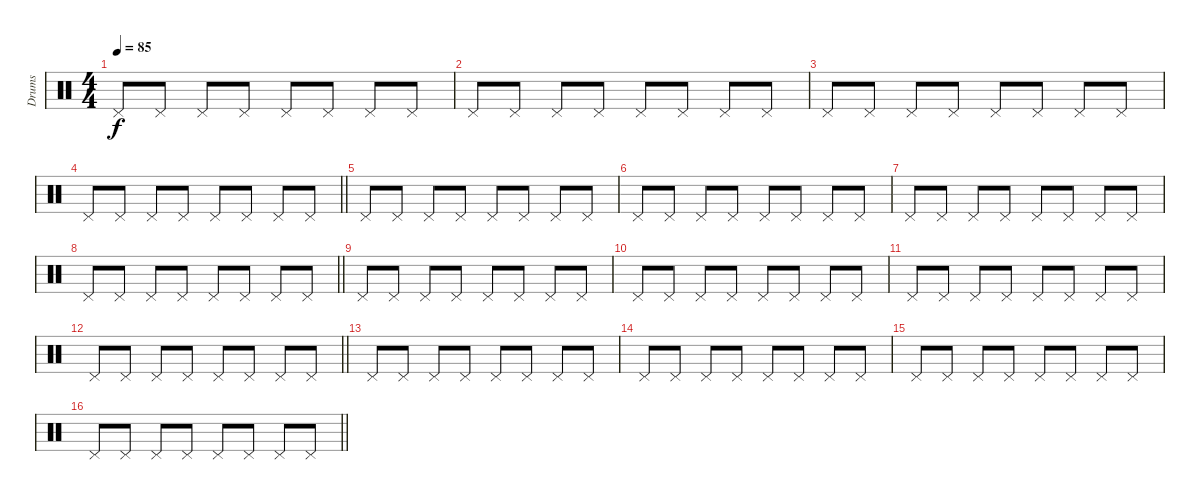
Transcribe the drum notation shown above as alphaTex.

\track ("Drums" "Drums") {solo instrument percussion}
\staff {score}
\articulation defaults
\ts (4 4)
\section ("" "")
\tempo 85
\clef neutral
\ks c "Pedal Hi-Hat (hit)".8{dy f} "Pedal Hi-Hat (hit)".8 "Pedal Hi-Hat (hit)".8 "Pedal Hi-Hat (hit)".8 "Pedal Hi-Hat (hit)".8 "Pedal Hi-Hat (hit)".8 "Pedal Hi-Hat (hit)".8 "Pedal Hi-Hat (hit)".8
|
"Pedal Hi-Hat (hit)".8 "Pedal Hi-Hat (hit)".8 "Pedal Hi-Hat (hit)".8 "Pedal Hi-Hat (hit)".8 "Pedal Hi-Hat (hit)".8 "Pedal Hi-Hat (hit)".8 "Pedal Hi-Hat (hit)".8 "Pedal Hi-Hat (hit)".8 |
"Pedal Hi-Hat (hit)".8 "Pedal Hi-Hat (hit)".8 "Pedal Hi-Hat (hit)".8 "Pedal Hi-Hat (hit)".8 "Pedal Hi-Hat (hit)".8 "Pedal Hi-Hat (hit)".8 "Pedal Hi-Hat (hit)".8 "Pedal Hi-Hat (hit)".8 |
\barLineRight lightlight "Pedal Hi-Hat (hit)".8 "Pedal Hi-Hat (hit)".8 "Pedal Hi-Hat (hit)".8 "Pedal Hi-Hat (hit)".8 "Pedal Hi-Hat (hit)".8 "Pedal Hi-Hat (hit)".8 "Pedal Hi-Hat (hit)".8 "Pedal Hi-Hat (hit)".8
|
\section ("" "")
"Pedal Hi-Hat (hit)".8 "Pedal Hi-Hat (hit)".8 "Pedal Hi-Hat (hit)".8 "Pedal Hi-Hat (hit)".8 "Pedal Hi-Hat (hit)".8 "Pedal Hi-Hat (hit)".8 "Pedal Hi-Hat (hit)".8 "Pedal Hi-Hat (hit)".8 |
"Pedal Hi-Hat (hit)".8 "Pedal Hi-Hat (hit)".8 "Pedal Hi-Hat (hit)".8 "Pedal Hi-Hat (hit)".8 "Pedal Hi-Hat (hit)".8 "Pedal Hi-Hat (hit)".8 "Pedal Hi-Hat (hit)".8 "Pedal Hi-Hat (hit)".8 |
"Pedal Hi-Hat (hit)".8 "Pedal Hi-Hat (hit)".8 "Pedal Hi-Hat (hit)".8 "Pedal Hi-Hat (hit)".8 "Pedal Hi-Hat (hit)".8 "Pedal Hi-Hat (hit)".8 "Pedal Hi-Hat (hit)".8 "Pedal Hi-Hat (hit)".8 |
\barLineRight lightlight "Pedal Hi-Hat (hit)".8 "Pedal Hi-Hat (hit)".8 "Pedal Hi-Hat (hit)".8 "Pedal Hi-Hat (hit)".8 "Pedal Hi-Hat (hit)".8 "Pedal Hi-Hat (hit)".8 "Pedal Hi-Hat (hit)".8 "Pedal Hi-Hat (hit)".8
|
\section ("" "")
"Pedal Hi-Hat (hit)".8 "Pedal Hi-Hat (hit)".8 "Pedal Hi-Hat (hit)".8 "Pedal Hi-Hat (hit)".8 "Pedal Hi-Hat (hit)".8 "Pedal Hi-Hat (hit)".8 "Pedal Hi-Hat (hit)".8 "Pedal Hi-Hat (hit)".8 |
"Pedal Hi-Hat (hit)".8 "Pedal Hi-Hat (hit)".8 "Pedal Hi-Hat (hit)".8 "Pedal Hi-Hat (hit)".8 "Pedal Hi-Hat (hit)".8 "Pedal Hi-Hat (hit)".8 "Pedal Hi-Hat (hit)".8 "Pedal Hi-Hat (hit)".8 |
"Pedal Hi-Hat (hit)".8 "Pedal Hi-Hat (hit)".8 "Pedal Hi-Hat (hit)".8 "Pedal Hi-Hat (hit)".8 "Pedal Hi-Hat (hit)".8 "Pedal Hi-Hat (hit)".8 "Pedal Hi-Hat (hit)".8 "Pedal Hi-Hat (hit)".8 |
\barLineRight lightlight "Pedal Hi-Hat (hit)".8 "Pedal Hi-Hat (hit)".8 "Pedal Hi-Hat (hit)".8 "Pedal Hi-Hat (hit)".8 "Pedal Hi-Hat (hit)".8 "Pedal Hi-Hat (hit)".8 "Pedal Hi-Hat (hit)".8 "Pedal Hi-Hat (hit)".8
|
\section ("" "")
"Pedal Hi-Hat (hit)".8 "Pedal Hi-Hat (hit)".8 "Pedal Hi-Hat (hit)".8 "Pedal Hi-Hat (hit)".8 "Pedal Hi-Hat (hit)".8 "Pedal Hi-Hat (hit)".8 "Pedal Hi-Hat (hit)".8 "Pedal Hi-Hat (hit)".8 |
"Pedal Hi-Hat (hit)".8 "Pedal Hi-Hat (hit)".8 "Pedal Hi-Hat (hit)".8 "Pedal Hi-Hat (hit)".8 "Pedal Hi-Hat (hit)".8 "Pedal Hi-Hat (hit)".8 "Pedal Hi-Hat (hit)".8 "Pedal Hi-Hat (hit)".8 |
"Pedal Hi-Hat (hit)".8 "Pedal Hi-Hat (hit)".8 "Pedal Hi-Hat (hit)".8 "Pedal Hi-Hat (hit)".8 "Pedal Hi-Hat (hit)".8 "Pedal Hi-Hat (hit)".8 "Pedal Hi-Hat (hit)".8 "Pedal Hi-Hat (hit)".8 |
\barLineRight lightlight "Pedal Hi-Hat (hit)".8 "Pedal Hi-Hat (hit)".8 "Pedal Hi-Hat (hit)".8 "Pedal Hi-Hat (hit)".8 "Pedal Hi-Hat (hit)".8 "Pedal Hi-Hat (hit)".8 "Pedal Hi-Hat (hit)".8 "Pedal Hi-Hat (hit)".8
